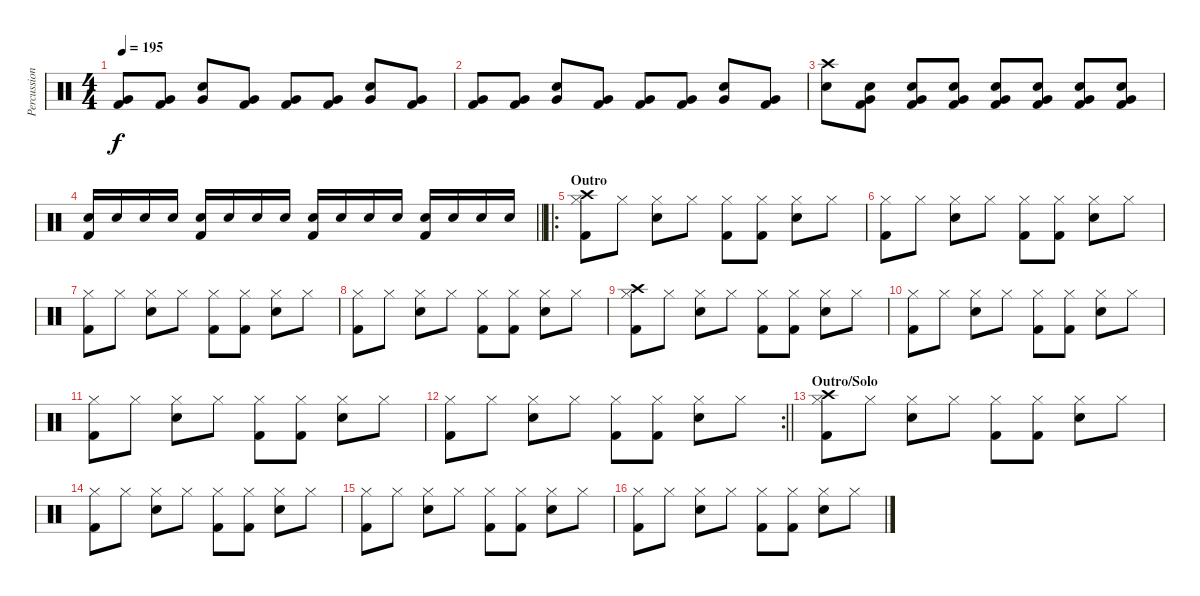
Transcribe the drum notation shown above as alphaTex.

\track ("Percussion" "Percussion") {instrument percussion}
\staff {score}
\articulation defaults
\ts (4 4)
\tempo 195
\clef neutral
\ks c
("Very Low Tom (hit)" "Kick (hit) 2").8{dy f} ("Very Low Tom (hit)" "Kick (hit) 2").8 ("Very Low Tom (hit)" "Electric Snare (hit)").8 ("Very Low Tom (hit)" "Kick (hit) 2").8 ("Very Low Tom (hit)" "Kick (hit) 2").8 ("Very Low Tom (hit)" "Kick (hit) 2").8 ("Very Low Tom (hit)" "Electric Snare (hit)").8 ("Very Low Tom (hit)" "Kick (hit) 2").8 |
("Very Low Tom (hit)" "Kick (hit) 2").8 ("Very Low Tom (hit)" "Kick (hit) 2").8 ("Very Low Tom (hit)" "Electric Snare (hit)").8 ("Very Low Tom (hit)" "Kick (hit) 2").8 ("Very Low Tom (hit)" "Kick (hit) 2").8 ("Very Low Tom (hit)" "Kick (hit) 2").8 ("Very Low Tom (hit)" "Electric Snare (hit)").8 ("Very Low Tom (hit)" "Kick (hit) 2").8 |
("Crash high (hit)" "Electric Snare (hit)").8 ("Very Low Tom (hit)" "Electric Snare (hit)" "Kick (hit) 2").8 ("Very Low Tom (hit)" "Electric Snare (hit)" "Kick (hit) 2").8 ("Very Low Tom (hit)" "Electric Snare (hit)" "Kick (hit) 2").8 ("Very Low Tom (hit)" "Electric Snare (hit)" "Kick (hit) 2").8 ("Very Low Tom (hit)" "Electric Snare (hit)" "Kick (hit) 2").8 ("Very Low Tom (hit)" "Electric Snare (hit)" "Kick (hit) 2").8 ("Very Low Tom (hit)" "Electric Snare (hit)" "Kick (hit) 2").8 |
\barLineRight lightlight
("Electric Snare (hit)" "Kick (hit) 2").16 "Electric Snare (hit)".16 "Electric Snare (hit)".16 "Electric Snare (hit)".16 ("Electric Snare (hit)" "Kick (hit) 2").16 "Electric Snare (hit)".16 "Electric Snare (hit)".16 "Electric Snare (hit)".16 ("Electric Snare (hit)" "Kick (hit) 2").16 "Electric Snare (hit)".16 "Electric Snare (hit)".16 "Electric Snare (hit)".16 ("Electric Snare (hit)" "Kick (hit) 2").16 "Electric Snare (hit)".16 "Electric Snare (hit)".16 "Electric Snare (hit)".16 |
\ro
\section ("" "Outro")
("Crash high (hit)" "Hi-Hat (closed)" "Kick (hit) 2").8 "Hi-Hat (closed)".8 ("Hi-Hat (closed)" "Electric Snare (hit)").8 "Hi-Hat (closed)".8 ("Hi-Hat (closed)" "Kick (hit) 2").8 ("Hi-Hat (closed)" "Kick (hit) 2").8 ("Hi-Hat (closed)" "Electric Snare (hit)").8 "Hi-Hat (closed)".8 |
("Hi-Hat (closed)" "Kick (hit) 2").8 "Hi-Hat (closed)".8 ("Hi-Hat (closed)" "Electric Snare (hit)").8 "Hi-Hat (closed)".8 ("Hi-Hat (closed)" "Kick (hit) 2").8 ("Hi-Hat (closed)" "Kick (hit) 2").8 ("Hi-Hat (closed)" "Electric Snare (hit)").8 "Hi-Hat (closed)".8 |
("Hi-Hat (closed)" "Kick (hit) 2").8 "Hi-Hat (closed)".8 ("Hi-Hat (closed)" "Electric Snare (hit)").8 "Hi-Hat (closed)".8 ("Hi-Hat (closed)" "Kick (hit) 2").8 ("Hi-Hat (closed)" "Kick (hit) 2").8 ("Hi-Hat (closed)" "Electric Snare (hit)").8 "Hi-Hat (closed)".8 |
("Hi-Hat (closed)" "Kick (hit) 2").8 "Hi-Hat (closed)".8 ("Hi-Hat (closed)" "Electric Snare (hit)").8 "Hi-Hat (closed)".8 ("Hi-Hat (closed)" "Kick (hit) 2").8 ("Hi-Hat (closed)" "Kick (hit) 2").8 ("Hi-Hat (closed)" "Electric Snare (hit)").8 "Hi-Hat (closed)".8 |
("Crash high (hit)" "Hi-Hat (closed)" "Kick (hit) 2").8 "Hi-Hat (closed)".8 ("Hi-Hat (closed)" "Electric Snare (hit)").8 "Hi-Hat (closed)".8 ("Hi-Hat (closed)" "Kick (hit) 2").8 ("Hi-Hat (closed)" "Kick (hit) 2").8 ("Hi-Hat (closed)" "Electric Snare (hit)").8 "Hi-Hat (closed)".8 |
("Hi-Hat (closed)" "Kick (hit) 2").8 "Hi-Hat (closed)".8 ("Hi-Hat (closed)" "Electric Snare (hit)").8 "Hi-Hat (closed)".8 ("Hi-Hat (closed)" "Kick (hit) 2").8 ("Hi-Hat (closed)" "Kick (hit) 2").8 ("Hi-Hat (closed)" "Electric Snare (hit)").8 "Hi-Hat (closed)".8 |
("Hi-Hat (closed)" "Kick (hit) 2").8 "Hi-Hat (closed)".8 ("Hi-Hat (closed)" "Electric Snare (hit)").8 "Hi-Hat (closed)".8 ("Hi-Hat (closed)" "Kick (hit) 2").8 ("Hi-Hat (closed)" "Kick (hit) 2").8 ("Hi-Hat (closed)" "Electric Snare (hit)").8 "Hi-Hat (closed)".8 |
\rc 2
\barLineRight lightlight
("Hi-Hat (closed)" "Kick (hit) 2").8 "Hi-Hat (closed)".8 ("Hi-Hat (closed)" "Electric Snare (hit)").8 "Hi-Hat (closed)".8 ("Hi-Hat (closed)" "Kick (hit) 2").8 ("Hi-Hat (closed)" "Kick (hit) 2").8 ("Hi-Hat (closed)" "Electric Snare (hit)").8 "Hi-Hat (closed)".8 |
\section ("" "Outro/Solo")
("Crash high (hit)" "Hi-Hat (closed)" "Kick (hit) 2").8 "Hi-Hat (closed)".8 ("Hi-Hat (closed)" "Electric Snare (hit)").8 "Hi-Hat (closed)".8 ("Hi-Hat (closed)" "Kick (hit) 2").8 ("Hi-Hat (closed)" "Kick (hit) 2").8 ("Hi-Hat (closed)" "Electric Snare (hit)").8 "Hi-Hat (closed)".8 |
("Hi-Hat (closed)" "Kick (hit) 2").8 "Hi-Hat (closed)".8 ("Hi-Hat (closed)" "Electric Snare (hit)").8 "Hi-Hat (closed)".8 ("Hi-Hat (closed)" "Kick (hit) 2").8 ("Hi-Hat (closed)" "Kick (hit) 2").8 ("Hi-Hat (closed)" "Electric Snare (hit)").8 "Hi-Hat (closed)".8 |
("Hi-Hat (closed)" "Kick (hit) 2").8 "Hi-Hat (closed)".8 ("Hi-Hat (closed)" "Electric Snare (hit)").8 "Hi-Hat (closed)".8 ("Hi-Hat (closed)" "Kick (hit) 2").8 ("Hi-Hat (closed)" "Kick (hit) 2").8 ("Hi-Hat (closed)" "Electric Snare (hit)").8 "Hi-Hat (closed)".8 |
("Hi-Hat (closed)" "Kick (hit) 2").8 "Hi-Hat (closed)".8 ("Hi-Hat (closed)" "Electric Snare (hit)").8 "Hi-Hat (closed)".8 ("Hi-Hat (closed)" "Kick (hit) 2").8 ("Hi-Hat (closed)" "Kick (hit) 2").8 ("Hi-Hat (closed)" "Electric Snare (hit)").8 "Hi-Hat (closed)".8
